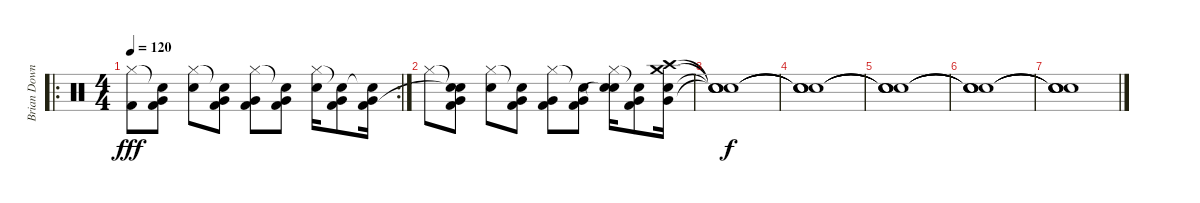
\track ("Brian Downey" "Brian Down") {instrument percussion}
\staff {score}
\articulation defaults
\ro
\rc 2
\ts (4 4)
\tempo 120
\clef neutral
\ks c
("Hi-Hat (closed)" "Kick (hit) 2"{t}).8{dy fff} ("Snare (hit)"{t} "Kick (hit) 2" "Very Low Tom (hit)").8 ("Hi-Hat (closed)" "Electric Snare (hit)").8 ("Snare (hit)"{t} "Kick (hit) 2" "Very Low Tom (hit)").8 ("Hi-Hat (closed)" "Kick (hit) 2" "Very Low Tom (hit)").8 ("Snare (hit)"{t} "Kick (hit) 2" "Very Low Tom (hit)").8 ("Hi-Hat (closed)" "Electric Snare (hit)").16 ("Snare (hit)"{t} "Kick (hit) 2" "Very Low Tom (hit)").8 ("Snare (hit)"{t} "Kick (hit) 2" "Very Low Tom (hit)").16 |
"Hi-Hat (closed)".8 ("Snare (hit)"{t} "Snare (hit)"{t} "Kick (hit) 2" "Very Low Tom (hit)").8 ("Hi-Hat (closed)" "Electric Snare (hit)").8 ("Snare (hit)"{t} "Kick (hit) 2" "Very Low Tom (hit)").8 ("Hi-Hat (closed)" "Kick (hit) 2" "Very Low Tom (hit)").8 ("Snare (hit)"{t} "Kick (hit) 2" "Very Low Tom (hit)").8 ("Hi-Hat (closed)" "Electric Snare (hit)" "Snare (hit)"{t}).16 ("Snare (hit)"{t} "Kick (hit) 2" "Very Low Tom (hit)").8 ("Crash medium (hit)" "Crash high (hit)" "Electric Snare (hit)" "Very Low Tom (hit)").16 |
("Snare (hit)"{t} "Snare (hit)"{t} "Snare (hit)"{t} "Snare (hit)"{t}).1{dy f} |
("Snare (hit)"{t} "Snare (hit)"{t} "Snare (hit)"{t} "Snare (hit)"{t}).1 |
("Snare (hit)"{t} "Snare (hit)"{t} "Snare (hit)"{t} "Snare (hit)"{t}).1 |
("Snare (hit)"{t} "Snare (hit)"{t} "Snare (hit)"{t} "Snare (hit)"{t}).1 |
("Snare (hit)"{t} "Snare (hit)"{t} "Snare (hit)"{t} "Snare (hit)"{t}).1
